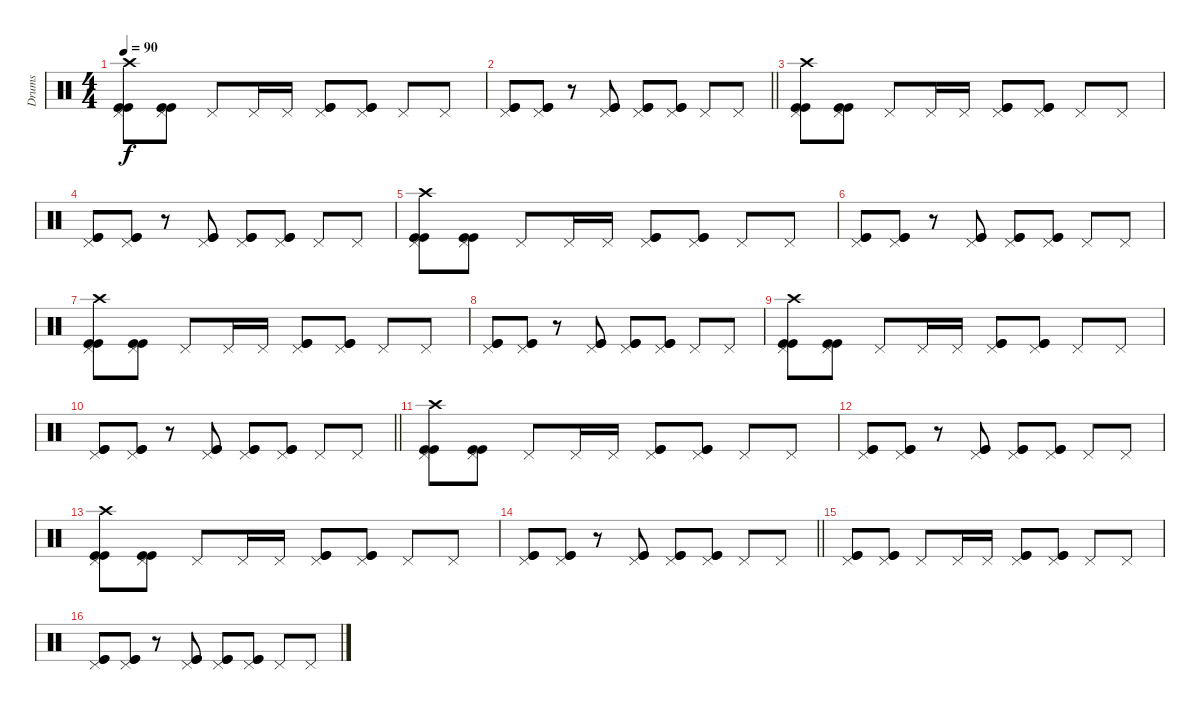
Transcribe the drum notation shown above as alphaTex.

\track ("Drums" "Drums") {instrument percussion}
\staff {score}
\articulation defaults
\ts (4 4)
\tempo 90
\clef neutral
\ks c
("Kick (hit)" "Kick (hit)" "Pedal Hi-Hat (hit)" "Crash high (hit)").8{dy f} ("Kick (hit)" "Kick (hit)" "Pedal Hi-Hat (hit)").8 "Pedal Hi-Hat (hit)".8 "Pedal Hi-Hat (hit)".16 "Pedal Hi-Hat (hit)".16 ("Kick (hit)" "Kick (hit)" "Pedal Hi-Hat (hit)").8 ("Kick (hit)" "Kick (hit)" "Pedal Hi-Hat (hit)").8 "Pedal Hi-Hat (hit)".8 "Pedal Hi-Hat (hit)".8 |
\barLineRight lightlight
("Kick (hit)" "Kick (hit)" "Pedal Hi-Hat (hit)").8 ("Kick (hit)" "Kick (hit)" "Pedal Hi-Hat (hit)").8 r.8 ("Kick (hit)" "Kick (hit)" "Pedal Hi-Hat (hit)").8 ("Kick (hit)" "Kick (hit)" "Pedal Hi-Hat (hit)").8 ("Kick (hit)" "Kick (hit)" "Pedal Hi-Hat (hit)").8 "Pedal Hi-Hat (hit)".8 "Pedal Hi-Hat (hit)".8 |
("Kick (hit)" "Kick (hit)" "Pedal Hi-Hat (hit)" "Crash high (hit)").8 ("Kick (hit)" "Kick (hit)" "Pedal Hi-Hat (hit)").8 "Pedal Hi-Hat (hit)".8 "Pedal Hi-Hat (hit)".16 "Pedal Hi-Hat (hit)".16 ("Kick (hit)" "Kick (hit)" "Pedal Hi-Hat (hit)").8 ("Kick (hit)" "Kick (hit)" "Pedal Hi-Hat (hit)").8 "Pedal Hi-Hat (hit)".8 "Pedal Hi-Hat (hit)".8 |
("Kick (hit)" "Kick (hit)" "Pedal Hi-Hat (hit)").8 ("Kick (hit)" "Kick (hit)" "Pedal Hi-Hat (hit)").8 r.8 ("Kick (hit)" "Kick (hit)" "Pedal Hi-Hat (hit)").8 ("Kick (hit)" "Kick (hit)" "Pedal Hi-Hat (hit)").8 ("Kick (hit)" "Kick (hit)" "Pedal Hi-Hat (hit)").8 "Pedal Hi-Hat (hit)".8 "Pedal Hi-Hat (hit)".8 |
("Kick (hit)" "Kick (hit)" "Pedal Hi-Hat (hit)" "Crash high (hit)").8 ("Kick (hit)" "Kick (hit)" "Pedal Hi-Hat (hit)").8 "Pedal Hi-Hat (hit)".8 "Pedal Hi-Hat (hit)".16 "Pedal Hi-Hat (hit)".16 ("Kick (hit)" "Kick (hit)" "Pedal Hi-Hat (hit)").8 ("Kick (hit)" "Kick (hit)" "Pedal Hi-Hat (hit)").8 "Pedal Hi-Hat (hit)".8 "Pedal Hi-Hat (hit)".8 |
("Kick (hit)" "Kick (hit)" "Pedal Hi-Hat (hit)").8 ("Kick (hit)" "Kick (hit)" "Pedal Hi-Hat (hit)").8 r.8 ("Kick (hit)" "Kick (hit)" "Pedal Hi-Hat (hit)").8 ("Kick (hit)" "Kick (hit)" "Pedal Hi-Hat (hit)").8 ("Kick (hit)" "Kick (hit)" "Pedal Hi-Hat (hit)").8 "Pedal Hi-Hat (hit)".8 "Pedal Hi-Hat (hit)".8 |
("Kick (hit)" "Kick (hit)" "Pedal Hi-Hat (hit)" "Crash high (hit)").8 ("Kick (hit)" "Kick (hit)" "Pedal Hi-Hat (hit)").8 "Pedal Hi-Hat (hit)".8 "Pedal Hi-Hat (hit)".16 "Pedal Hi-Hat (hit)".16 ("Kick (hit)" "Kick (hit)" "Pedal Hi-Hat (hit)").8 ("Kick (hit)" "Kick (hit)" "Pedal Hi-Hat (hit)").8 "Pedal Hi-Hat (hit)".8 "Pedal Hi-Hat (hit)".8 |
("Kick (hit)" "Kick (hit)" "Pedal Hi-Hat (hit)").8 ("Kick (hit)" "Kick (hit)" "Pedal Hi-Hat (hit)").8 r.8 ("Kick (hit)" "Kick (hit)" "Pedal Hi-Hat (hit)").8 ("Kick (hit)" "Kick (hit)" "Pedal Hi-Hat (hit)").8 ("Kick (hit)" "Kick (hit)" "Pedal Hi-Hat (hit)").8 "Pedal Hi-Hat (hit)".8 "Pedal Hi-Hat (hit)".8 |
("Kick (hit)" "Kick (hit)" "Pedal Hi-Hat (hit)" "Crash high (hit)").8 ("Kick (hit)" "Kick (hit)" "Pedal Hi-Hat (hit)").8 "Pedal Hi-Hat (hit)".8 "Pedal Hi-Hat (hit)".16 "Pedal Hi-Hat (hit)".16 ("Kick (hit)" "Kick (hit)" "Pedal Hi-Hat (hit)").8 ("Kick (hit)" "Kick (hit)" "Pedal Hi-Hat (hit)").8 "Pedal Hi-Hat (hit)".8 "Pedal Hi-Hat (hit)".8 |
\barLineRight lightlight
("Kick (hit)" "Kick (hit)" "Pedal Hi-Hat (hit)").8 ("Kick (hit)" "Kick (hit)" "Pedal Hi-Hat (hit)").8 r.8 ("Kick (hit)" "Kick (hit)" "Pedal Hi-Hat (hit)").8 ("Kick (hit)" "Kick (hit)" "Pedal Hi-Hat (hit)").8 ("Kick (hit)" "Kick (hit)" "Pedal Hi-Hat (hit)").8 "Pedal Hi-Hat (hit)".8 "Pedal Hi-Hat (hit)".8 |
("Kick (hit)" "Kick (hit)" "Pedal Hi-Hat (hit)" "Crash high (hit)").8 ("Kick (hit)" "Kick (hit)" "Pedal Hi-Hat (hit)").8 "Pedal Hi-Hat (hit)".8 "Pedal Hi-Hat (hit)".16 "Pedal Hi-Hat (hit)".16 ("Kick (hit)" "Kick (hit)" "Pedal Hi-Hat (hit)").8 ("Kick (hit)" "Kick (hit)" "Pedal Hi-Hat (hit)").8 "Pedal Hi-Hat (hit)".8 "Pedal Hi-Hat (hit)".8 |
("Kick (hit)" "Kick (hit)" "Pedal Hi-Hat (hit)").8 ("Kick (hit)" "Kick (hit)" "Pedal Hi-Hat (hit)").8 r.8 ("Kick (hit)" "Kick (hit)" "Pedal Hi-Hat (hit)").8 ("Kick (hit)" "Kick (hit)" "Pedal Hi-Hat (hit)").8 ("Kick (hit)" "Kick (hit)" "Pedal Hi-Hat (hit)").8 "Pedal Hi-Hat (hit)".8 "Pedal Hi-Hat (hit)".8 |
("Kick (hit)" "Kick (hit)" "Pedal Hi-Hat (hit)" "Crash high (hit)").8 ("Kick (hit)" "Kick (hit)" "Pedal Hi-Hat (hit)").8 "Pedal Hi-Hat (hit)".8 "Pedal Hi-Hat (hit)".16 "Pedal Hi-Hat (hit)".16 ("Kick (hit)" "Kick (hit)" "Pedal Hi-Hat (hit)").8 ("Kick (hit)" "Kick (hit)" "Pedal Hi-Hat (hit)").8 "Pedal Hi-Hat (hit)".8 "Pedal Hi-Hat (hit)".8 |
\barLineRight lightlight
("Kick (hit)" "Kick (hit)" "Pedal Hi-Hat (hit)").8 ("Kick (hit)" "Kick (hit)" "Pedal Hi-Hat (hit)").8 r.8 ("Kick (hit)" "Kick (hit)" "Pedal Hi-Hat (hit)").8 ("Kick (hit)" "Kick (hit)" "Pedal Hi-Hat (hit)").8 ("Kick (hit)" "Kick (hit)" "Pedal Hi-Hat (hit)").8 "Pedal Hi-Hat (hit)".8 "Pedal Hi-Hat (hit)".8 |
("Kick (hit)" "Kick (hit)" "Pedal Hi-Hat (hit)").8 ("Kick (hit)" "Kick (hit)" "Pedal Hi-Hat (hit)").8 "Pedal Hi-Hat (hit)".8 "Pedal Hi-Hat (hit)".16 "Pedal Hi-Hat (hit)".16 ("Kick (hit)" "Kick (hit)" "Pedal Hi-Hat (hit)").8 ("Kick (hit)" "Kick (hit)" "Pedal Hi-Hat (hit)").8 "Pedal Hi-Hat (hit)".8 "Pedal Hi-Hat (hit)".8 |
("Kick (hit)" "Kick (hit)" "Pedal Hi-Hat (hit)").8 ("Kick (hit)" "Kick (hit)" "Pedal Hi-Hat (hit)").8 r.8 ("Kick (hit)" "Kick (hit)" "Pedal Hi-Hat (hit)").8 ("Kick (hit)" "Kick (hit)" "Pedal Hi-Hat (hit)").8 ("Kick (hit)" "Kick (hit)" "Pedal Hi-Hat (hit)").8 "Pedal Hi-Hat (hit)".8 "Pedal Hi-Hat (hit)".8
